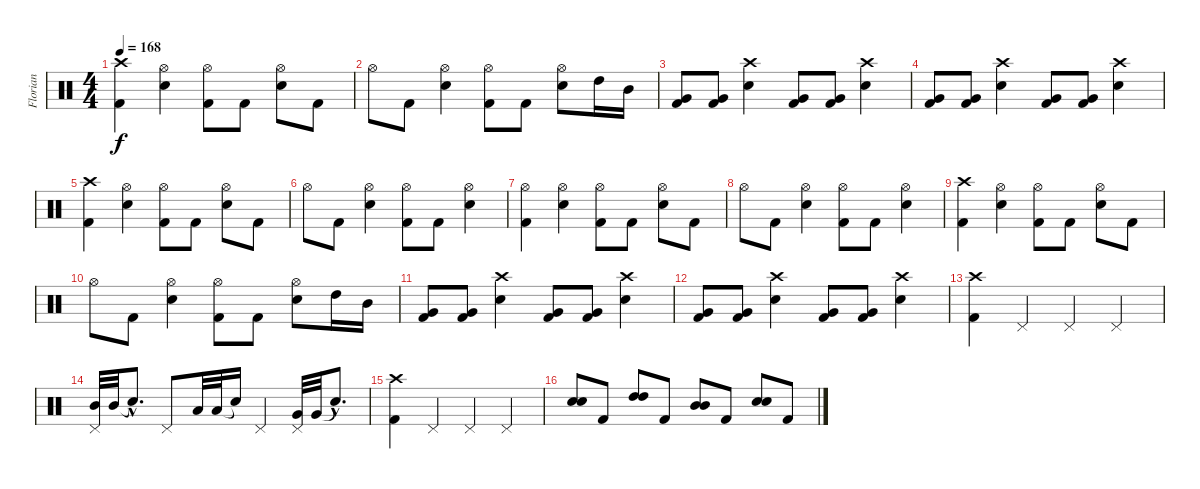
\track ("Florian" "Florian") {instrument percussion}
\staff {score}
\articulation defaults
\ts (4 4)
\tempo 168
\clef neutral
\ks c
("Crash high (hit)" "Kick (hit) 2").4{dy f} ("Hi-Hat (open)" "Snare (hit) 2").4 ("Hi-Hat (open)" "Kick (hit) 2").8 "Kick (hit) 2".8 ("Hi-Hat (open)" "Snare (hit) 2").8 "Kick (hit) 2".8 |
"Hi-Hat (open)".8 "Kick (hit) 2".8 ("Hi-Hat (open)" "Snare (hit) 2").4 ("Hi-Hat (open)" "Kick (hit) 2").8 "Kick (hit) 2".8 ("Hi-Hat (open)" "Snare (hit) 2").8 "High Tom (hit)".16 "Mid Tom (hit)".16 |
("Very Low Tom (hit)" "Kick (hit) 2").8 ("Very Low Tom (hit)" "Kick (hit) 2").8 ("Crash high (hit)" "Snare (hit) 2").4 ("Very Low Tom (hit)" "Kick (hit) 2").8 ("Very Low Tom (hit)" "Kick (hit) 2").8 ("Crash high (hit)" "Snare (hit) 2").4 |
("Very Low Tom (hit)" "Kick (hit) 2").8 ("Very Low Tom (hit)" "Kick (hit) 2").8 ("Crash high (hit)" "Snare (hit) 2").4 ("Very Low Tom (hit)" "Kick (hit) 2").8 ("Very Low Tom (hit)" "Kick (hit) 2").8 ("Crash high (hit)" "Snare (hit) 2").4 |
("Crash high (hit)" "Kick (hit) 2").4 ("Hi-Hat (open)" "Snare (hit) 2").4 ("Hi-Hat (open)" "Kick (hit) 2").8 "Kick (hit) 2".8 ("Hi-Hat (open)" "Snare (hit) 2").8 "Kick (hit) 2".8 |
"Hi-Hat (open)".8 "Kick (hit) 2".8 ("Hi-Hat (open)" "Snare (hit) 2").4 ("Hi-Hat (open)" "Kick (hit) 2").8 "Kick (hit) 2".8 ("Hi-Hat (open)" "Snare (hit) 2").4 |
("Hi-Hat (open)" "Kick (hit) 2").4 ("Hi-Hat (open)" "Snare (hit) 2").4 ("Hi-Hat (open)" "Kick (hit) 2").8 "Kick (hit) 2".8 ("Hi-Hat (open)" "Snare (hit) 2").8 "Kick (hit) 2".8 |
"Hi-Hat (open)".8 "Kick (hit) 2".8 ("Hi-Hat (open)" "Snare (hit) 2").4 ("Hi-Hat (open)" "Kick (hit) 2").8 "Kick (hit) 2".8 ("Hi-Hat (open)" "Snare (hit) 2").4 |
("Crash high (hit)" "Kick (hit) 2").4 ("Hi-Hat (open)" "Snare (hit) 2").4 ("Hi-Hat (open)" "Kick (hit) 2").8 "Kick (hit) 2".8 ("Hi-Hat (open)" "Snare (hit) 2").8 "Kick (hit) 2".8 |
"Hi-Hat (open)".8 "Kick (hit) 2".8 ("Hi-Hat (open)" "Snare (hit) 2").4 ("Hi-Hat (open)" "Kick (hit) 2").8 "Kick (hit) 2".8 ("Hi-Hat (open)" "Snare (hit) 2").8 "High Tom (hit)".16 "Mid Tom (hit)".16 |
("Very Low Tom (hit)" "Kick (hit) 2").8 ("Very Low Tom (hit)" "Kick (hit) 2").8 ("Crash high (hit)" "Snare (hit) 2").4 ("Very Low Tom (hit)" "Kick (hit) 2").8 ("Very Low Tom (hit)" "Kick (hit) 2").8 ("Crash high (hit)" "Snare (hit) 2").4 |
("Very Low Tom (hit)" "Kick (hit) 2").8 ("Very Low Tom (hit)" "Kick (hit) 2").8 ("Crash high (hit)" "Snare (hit) 2").4 ("Very Low Tom (hit)" "Kick (hit) 2").8 ("Very Low Tom (hit)" "Kick (hit) 2").8 ("Crash high (hit)" "Snare (hit) 2").4 |
("Crash high (hit)" "Kick (hit) 2").4 "Pedal Hi-Hat (hit)".4 "Pedal Hi-Hat (hit)".4 "Pedal Hi-Hat (hit)".4 |
("Pedal Hi-Hat (hit)" "Mid Tom (hit)").32 "Mid Tom (hit)".32 "Snare (hit)"{hac t}.8{d} "Pedal Hi-Hat (hit)".8 "Low Tom (hit)".32 "Low Tom (hit)".32 "Snare (hit)"{t}.16 "Pedal Hi-Hat (hit)".4 ("Pedal Hi-Hat (hit)" "Very Low Tom (hit)").32 "Very Low Tom (hit)".32 "Snare (hit)"{hac t}.8{d} |
("Crash high (hit)" "Kick (hit) 2").4 "Pedal Hi-Hat (hit)".4 "Pedal Hi-Hat (hit)".4 "Pedal Hi-Hat (hit)".4 |
("Snare (hit) 2" "Snare (hit) 2").8{bd 240} "Kick (hit) 2".8 ("High Tom (hit)" "High Tom (hit)").8{bd 240} "Kick (hit) 2".8 ("Mid Tom (hit)" "Mid Tom (hit)").8{bd 240} "Kick (hit) 2".8 ("Snare (hit) 2" "Snare (hit) 2").8{bd 240} "Kick (hit) 2".8
